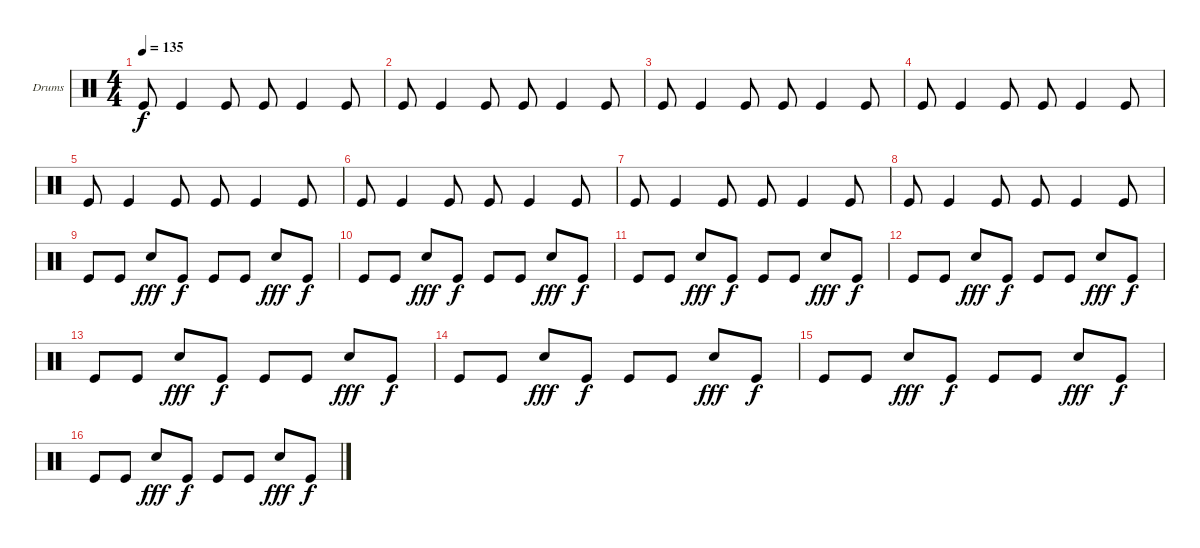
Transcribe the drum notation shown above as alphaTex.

\defaultSystemsLayout 4
\bracketExtendMode groupsimilarinstruments
\firstSystemTrackNameOrientation horizontal
\otherSystemsTrackNameOrientation horizontal
\track ("Helders" "Drums") {instrument percussion}
\staff {score}
\articulation defaults
\ts (4 4)
\tempo 135
\clef neutral
\ks c "Kick (hit)".8{dy f} "Kick (hit)".4 "Kick (hit)".8 "Kick (hit)".8 "Kick (hit)".4 "Kick (hit)".8
|
"Kick (hit)".8 "Kick (hit)".4 "Kick (hit)".8 "Kick (hit)".8 "Kick (hit)".4 "Kick (hit)".8 |
"Kick (hit)".8 "Kick (hit)".4 "Kick (hit)".8 "Kick (hit)".8 "Kick (hit)".4 "Kick (hit)".8 |
"Kick (hit)".8 "Kick (hit)".4 "Kick (hit)".8 "Kick (hit)".8 "Kick (hit)".4 "Kick (hit)".8 |
"Kick (hit)".8 "Kick (hit)".4 "Kick (hit)".8 "Kick (hit)".8 "Kick (hit)".4 "Kick (hit)".8 |
"Kick (hit)".8 "Kick (hit)".4 "Kick (hit)".8 "Kick (hit)".8 "Kick (hit)".4 "Kick (hit)".8 |
"Kick (hit)".8 "Kick (hit)".4 "Kick (hit)".8 "Kick (hit)".8 "Kick (hit)".4 "Kick (hit)".8 |
"Kick (hit)".8 "Kick (hit)".4 "Kick (hit)".8 "Kick (hit)".8 "Kick (hit)".4 "Kick (hit)".8 |
"Kick (hit)".8 "Kick (hit)".8 "Snare (hit) 2".8{dy fff} "Kick (hit)".8{dy f} "Kick (hit)".8 "Kick (hit)".8 "Snare (hit) 2".8{dy fff} "Kick (hit)".8{dy f} |
"Kick (hit)".8 "Kick (hit)".8 "Snare (hit) 2".8{dy fff} "Kick (hit)".8{dy f} "Kick (hit)".8 "Kick (hit)".8 "Snare (hit) 2".8{dy fff} "Kick (hit)".8{dy f} |
"Kick (hit)".8 "Kick (hit)".8 "Snare (hit) 2".8{dy fff} "Kick (hit)".8{dy f} "Kick (hit)".8 "Kick (hit)".8 "Snare (hit) 2".8{dy fff} "Kick (hit)".8{dy f} |
"Kick (hit)".8 "Kick (hit)".8 "Snare (hit) 2".8{dy fff} "Kick (hit)".8{dy f} "Kick (hit)".8 "Kick (hit)".8 "Snare (hit) 2".8{dy fff} "Kick (hit)".8{dy f} |
"Kick (hit)".8 "Kick (hit)".8 "Snare (hit) 2".8{dy fff} "Kick (hit)".8{dy f} "Kick (hit)".8 "Kick (hit)".8 "Snare (hit) 2".8{dy fff} "Kick (hit)".8{dy f} |
"Kick (hit)".8 "Kick (hit)".8 "Snare (hit) 2".8{dy fff} "Kick (hit)".8{dy f} "Kick (hit)".8 "Kick (hit)".8 "Snare (hit) 2".8{dy fff} "Kick (hit)".8{dy f} |
"Kick (hit)".8 "Kick (hit)".8 "Snare (hit) 2".8{dy fff} "Kick (hit)".8{dy f} "Kick (hit)".8 "Kick (hit)".8 "Snare (hit) 2".8{dy fff} "Kick (hit)".8{dy f} |
"Kick (hit)".8 "Kick (hit)".8 "Snare (hit) 2".8{dy fff} "Kick (hit)".8{dy f} "Kick (hit)".8 "Kick (hit)".8 "Snare (hit) 2".8{dy fff} "Kick (hit)".8{dy f}
